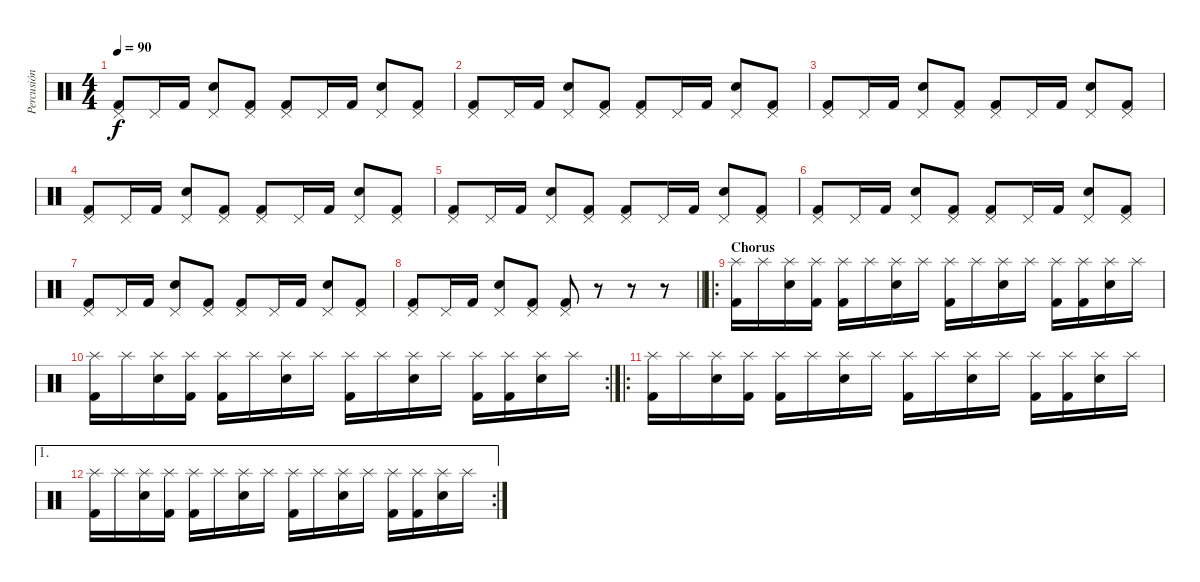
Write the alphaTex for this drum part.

\track ("Percusión" "Percusión") {instrument percussion}
\staff {score}
\articulation defaults
\ts (4 4)
\tempo 90
\clef neutral
\ks c
("Pedal Hi-Hat (hit)" "Kick (hit) 2").8{dy f} "Pedal Hi-Hat (hit)".16 "Kick (hit) 2".16 ("Pedal Hi-Hat (hit)" "Electric Snare (hit)").8 ("Pedal Hi-Hat (hit)" "Kick (hit) 2").8 ("Pedal Hi-Hat (hit)" "Kick (hit) 2").8 "Pedal Hi-Hat (hit)".16 "Kick (hit) 2".16 ("Pedal Hi-Hat (hit)" "Electric Snare (hit)").8 ("Pedal Hi-Hat (hit)" "Kick (hit) 2").8 |
("Pedal Hi-Hat (hit)" "Kick (hit) 2").8 "Pedal Hi-Hat (hit)".16 "Kick (hit) 2".16 ("Pedal Hi-Hat (hit)" "Electric Snare (hit)").8 ("Pedal Hi-Hat (hit)" "Kick (hit) 2").8 ("Pedal Hi-Hat (hit)" "Kick (hit) 2").8 "Pedal Hi-Hat (hit)".16 "Kick (hit) 2".16 ("Pedal Hi-Hat (hit)" "Electric Snare (hit)").8 ("Pedal Hi-Hat (hit)" "Kick (hit) 2").8 |
("Pedal Hi-Hat (hit)" "Kick (hit) 2").8 "Pedal Hi-Hat (hit)".16 "Kick (hit) 2".16 ("Pedal Hi-Hat (hit)" "Electric Snare (hit)").8 ("Pedal Hi-Hat (hit)" "Kick (hit) 2").8 ("Pedal Hi-Hat (hit)" "Kick (hit) 2").8 "Pedal Hi-Hat (hit)".16 "Kick (hit) 2".16 ("Pedal Hi-Hat (hit)" "Electric Snare (hit)").8 ("Pedal Hi-Hat (hit)" "Kick (hit) 2").8 |
("Pedal Hi-Hat (hit)" "Kick (hit) 2").8 "Pedal Hi-Hat (hit)".16 "Kick (hit) 2".16 ("Pedal Hi-Hat (hit)" "Electric Snare (hit)").8 ("Pedal Hi-Hat (hit)" "Kick (hit) 2").8 ("Pedal Hi-Hat (hit)" "Kick (hit) 2").8 "Pedal Hi-Hat (hit)".16 "Kick (hit) 2".16 ("Pedal Hi-Hat (hit)" "Electric Snare (hit)").8 ("Pedal Hi-Hat (hit)" "Kick (hit) 2").8 |
("Pedal Hi-Hat (hit)" "Kick (hit) 2").8 "Pedal Hi-Hat (hit)".16 "Kick (hit) 2".16 ("Pedal Hi-Hat (hit)" "Electric Snare (hit)").8 ("Pedal Hi-Hat (hit)" "Kick (hit) 2").8 ("Pedal Hi-Hat (hit)" "Kick (hit) 2").8 "Pedal Hi-Hat (hit)".16 "Kick (hit) 2".16 ("Pedal Hi-Hat (hit)" "Electric Snare (hit)").8 ("Pedal Hi-Hat (hit)" "Kick (hit) 2").8 |
("Pedal Hi-Hat (hit)" "Kick (hit) 2").8 "Pedal Hi-Hat (hit)".16 "Kick (hit) 2".16 ("Pedal Hi-Hat (hit)" "Electric Snare (hit)").8 ("Pedal Hi-Hat (hit)" "Kick (hit) 2").8 ("Pedal Hi-Hat (hit)" "Kick (hit) 2").8 "Pedal Hi-Hat (hit)".16 "Kick (hit) 2".16 ("Pedal Hi-Hat (hit)" "Electric Snare (hit)").8 ("Pedal Hi-Hat (hit)" "Kick (hit) 2").8 |
("Pedal Hi-Hat (hit)" "Kick (hit) 2").8 "Pedal Hi-Hat (hit)".16 "Kick (hit) 2".16 ("Pedal Hi-Hat (hit)" "Electric Snare (hit)").8 ("Pedal Hi-Hat (hit)" "Kick (hit) 2").8 ("Pedal Hi-Hat (hit)" "Kick (hit) 2").8 "Pedal Hi-Hat (hit)".16 "Kick (hit) 2".16 ("Pedal Hi-Hat (hit)" "Electric Snare (hit)").8 ("Pedal Hi-Hat (hit)" "Kick (hit) 2").8 |
\barLineRight lightlight
("Pedal Hi-Hat (hit)" "Kick (hit) 2").8 "Pedal Hi-Hat (hit)".16 "Kick (hit) 2".16 ("Pedal Hi-Hat (hit)" "Electric Snare (hit)").8 ("Pedal Hi-Hat (hit)" "Kick (hit) 2").8 ("Pedal Hi-Hat (hit)" "Kick (hit) 2").8 r.8 r.8 r.8 |
\ro
\section ("" "Chorus")
("Splash (hit)" "Kick (hit) 2").16 "Splash (hit)".16 ("Splash (hit)" "Electric Snare (hit)").16 ("Splash (hit)" "Kick (hit) 2").16 ("Splash (hit)" "Kick (hit) 2").16 "Splash (hit)".16 ("Splash (hit)" "Electric Snare (hit)").16 "Splash (hit)".16 ("Splash (hit)" "Kick (hit) 2").16 "Splash (hit)".16 ("Splash (hit)" "Electric Snare (hit)").16 "Splash (hit)".16 ("Splash (hit)" "Kick (hit) 2").16 ("Splash (hit)" "Kick (hit) 2").16 ("Splash (hit)" "Electric Snare (hit)").16 "Splash (hit)".16 |
\rc 2
("Splash (hit)" "Kick (hit) 2").16 "Splash (hit)".16 ("Splash (hit)" "Electric Snare (hit)").16 ("Splash (hit)" "Kick (hit) 2").16 ("Splash (hit)" "Kick (hit) 2").16 "Splash (hit)".16 ("Splash (hit)" "Electric Snare (hit)").16 "Splash (hit)".16 ("Splash (hit)" "Kick (hit) 2").16 "Splash (hit)".16 ("Splash (hit)" "Electric Snare (hit)").16 "Splash (hit)".16 ("Splash (hit)" "Kick (hit) 2").16 ("Splash (hit)" "Kick (hit) 2").16 ("Splash (hit)" "Electric Snare (hit)").16 "Splash (hit)".16 |
\ro
("Splash (hit)" "Kick (hit) 2").16 "Splash (hit)".16 ("Splash (hit)" "Electric Snare (hit)").16 ("Splash (hit)" "Kick (hit) 2").16 ("Splash (hit)" "Kick (hit) 2").16 "Splash (hit)".16 ("Splash (hit)" "Electric Snare (hit)").16 "Splash (hit)".16 ("Splash (hit)" "Kick (hit) 2").16 "Splash (hit)".16 ("Splash (hit)" "Electric Snare (hit)").16 "Splash (hit)".16 ("Splash (hit)" "Kick (hit) 2").16 ("Splash (hit)" "Kick (hit) 2").16 ("Splash (hit)" "Electric Snare (hit)").16 "Splash (hit)".16 |
\ae 1
\rc 2
("Splash (hit)" "Kick (hit) 2").16 "Splash (hit)".16 ("Splash (hit)" "Electric Snare (hit)").16 ("Splash (hit)" "Kick (hit) 2").16 ("Splash (hit)" "Kick (hit) 2").16 "Splash (hit)".16 ("Splash (hit)" "Electric Snare (hit)").16 "Splash (hit)".16 ("Splash (hit)" "Kick (hit) 2").16 "Splash (hit)".16 ("Splash (hit)" "Electric Snare (hit)").16 "Splash (hit)".16 ("Splash (hit)" "Kick (hit) 2").16 ("Splash (hit)" "Kick (hit) 2").16 ("Splash (hit)" "Electric Snare (hit)").16 "Splash (hit)".16
